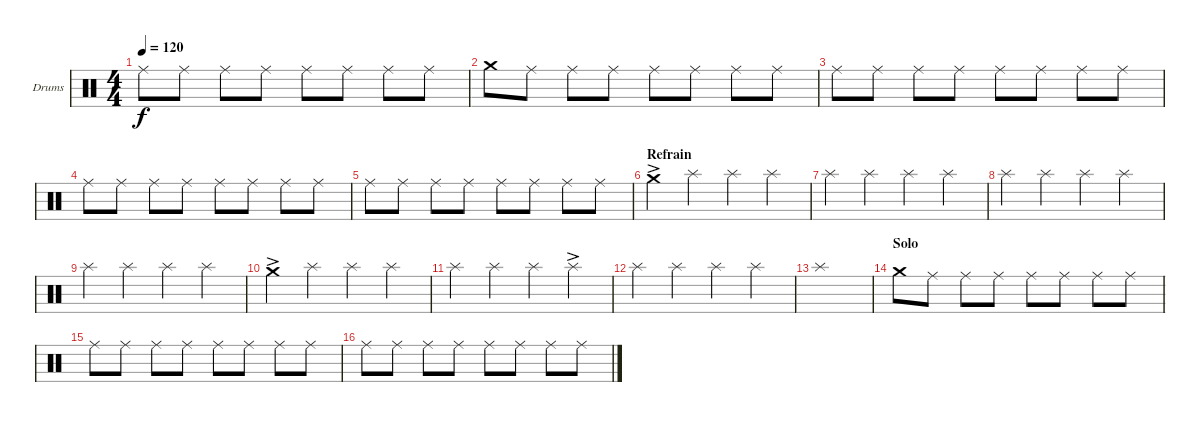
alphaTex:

\defaultSystemsLayout 4
\bracketExtendMode groupsimilarinstruments
\firstSystemTrackNameOrientation horizontal
\otherSystemsTrackNameOrientation horizontal
\track ("Drumkit" "Drums") {multiBarRest instrument percussion}
\staff {score}
\articulation defaults
\ts (4 4)
\tempo 120
\clef neutral
\ks c "Ride (middle)".8{dy f} "Ride (middle)".8 "Ride (middle)".8 "Ride (middle)".8 "Ride (middle)".8 "Ride (middle)".8 "Ride (middle)".8 "Ride (middle)".8
|
"Crash medium (hit)".8 "Ride (middle)".8 "Ride (middle)".8 "Ride (middle)".8 "Ride (middle)".8 "Ride (middle)".8 "Ride (middle)".8 "Ride (middle)".8 |
"Ride (middle)".8 "Ride (middle)".8 "Ride (middle)".8 "Ride (middle)".8 "Ride (middle)".8 "Ride (middle)".8 "Ride (middle)".8 "Ride (middle)".8 |
"Ride (middle)".8 "Ride (middle)".8 "Ride (middle)".8 "Ride (middle)".8 "Ride (middle)".8 "Ride (middle)".8 "Ride (middle)".8 "Ride (middle)".8 |
"Ride (middle)".8 "Ride (middle)".8 "Ride (middle)".8 "Ride (middle)".8 "Ride (middle)".8 "Ride (middle)".8 "Ride (middle)".8 "Ride (middle)".8 |
\section ("" "Refrain")
"Crash medium (hit)"{ac}.4 "Splash (hit)".4 "Splash (hit)".4 "Splash (hit)".4 |
"Splash (hit)".4 "Splash (hit)".4 "Splash (hit)".4 "Splash (hit)".4 |
"Splash (hit)".4 "Splash (hit)".4 "Splash (hit)".4 "Splash (hit)".4 |
"Splash (hit)".4 "Splash (hit)".4 "Splash (hit)".4 "Splash (hit)".4 |
"Crash medium (hit)"{ac}.4 "Splash (hit)".4 "Splash (hit)".4 "Splash (hit)".4 |
"Splash (hit)".4 "Splash (hit)".4 "Splash (hit)".4 "Splash (hit)"{ac}.4 |
"Splash (hit)".4 "Splash (hit)".4 "Splash (hit)".4 "Splash (hit)".4 |
"Splash (hit)".1 |
\section ("" "Solo")
"Crash medium (hit)".8 "Ride (middle)".8 "Ride (middle)".8 "Ride (middle)".8 "Ride (middle)".8 "Ride (middle)".8 "Ride (middle)".8 "Ride (middle)".8 |
"Ride (middle)".8 "Ride (middle)".8 "Ride (middle)".8 "Ride (middle)".8 "Ride (middle)".8 "Ride (middle)".8 "Ride (middle)".8 "Ride (middle)".8 |
"Ride (middle)".8 "Ride (middle)".8 "Ride (middle)".8 "Ride (middle)".8 "Ride (middle)".8 "Ride (middle)".8 "Ride (middle)".8 "Ride (middle)".8
